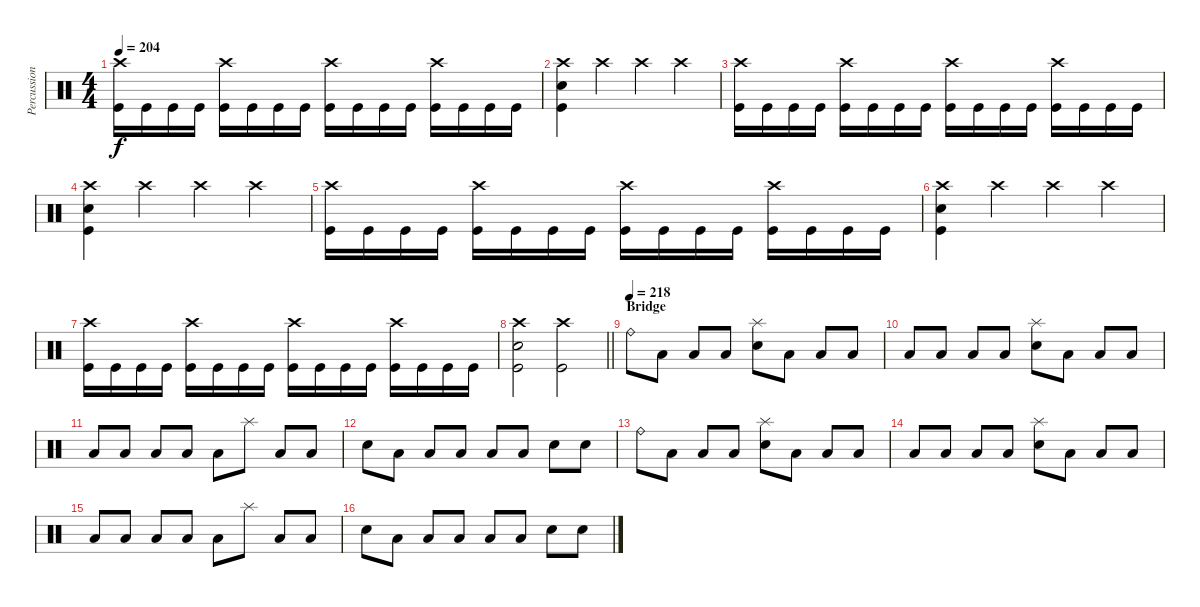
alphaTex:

\track ("Percussion" "Percussion") {instrument percussion}
\staff {score}
\articulation defaults
\ts (4 4)
\tempo 204
\clef neutral
\ks c
("Crash high (hit)" "Kick (hit)").16{dy f} "Kick (hit)".16 "Kick (hit)".16 "Kick (hit)".16 ("Crash high (hit)" "Kick (hit)").16 "Kick (hit)".16 "Kick (hit)".16 "Kick (hit)".16 ("Crash high (hit)" "Kick (hit)").16 "Kick (hit)".16 "Kick (hit)".16 "Kick (hit)".16 ("Crash high (hit)" "Kick (hit)").16 "Kick (hit)".16 "Kick (hit)".16 "Kick (hit)".16 |
("Crash high (hit)" "Electric Snare (hit)" "Kick (hit)").4 "Crash high (hit)".4 "Crash high (hit)".4 "Crash high (hit)".4 |
("Crash high (hit)" "Kick (hit)").16 "Kick (hit)".16 "Kick (hit)".16 "Kick (hit)".16 ("Crash high (hit)" "Kick (hit)").16 "Kick (hit)".16 "Kick (hit)".16 "Kick (hit)".16 ("Crash high (hit)" "Kick (hit)").16 "Kick (hit)".16 "Kick (hit)".16 "Kick (hit)".16 ("Crash high (hit)" "Kick (hit)").16 "Kick (hit)".16 "Kick (hit)".16 "Kick (hit)".16 |
("Crash high (hit)" "Electric Snare (hit)" "Kick (hit)").4 "Crash high (hit)".4 "Crash high (hit)".4 "Crash high (hit)".4 |
("Crash high (hit)" "Kick (hit)").16 "Kick (hit)".16 "Kick (hit)".16 "Kick (hit)".16 ("Crash high (hit)" "Kick (hit)").16 "Kick (hit)".16 "Kick (hit)".16 "Kick (hit)".16 ("Crash high (hit)" "Kick (hit)").16 "Kick (hit)".16 "Kick (hit)".16 "Kick (hit)".16 ("Crash high (hit)" "Kick (hit)").16 "Kick (hit)".16 "Kick (hit)".16 "Kick (hit)".16 |
("Crash high (hit)" "Electric Snare (hit)" "Kick (hit)").4 "Crash high (hit)".4 "Crash high (hit)".4 "Crash high (hit)".4 |
("Crash high (hit)" "Kick (hit)").16 "Kick (hit)".16 "Kick (hit)".16 "Kick (hit)".16 ("Crash high (hit)" "Kick (hit)").16 "Kick (hit)".16 "Kick (hit)".16 "Kick (hit)".16 ("Crash high (hit)" "Kick (hit)").16 "Kick (hit)".16 "Kick (hit)".16 "Kick (hit)".16 ("Crash high (hit)" "Kick (hit)").16 "Kick (hit)".16 "Kick (hit)".16 "Kick (hit)".16 |
\barLineRight lightlight
("Crash high (hit)" "Electric Snare (hit)" "Kick (hit)").2 ("Crash high (hit)" "Kick (hit)").2 |
\section ("" "Bridge")
\tempo (218)
"Ride (bell)".8 "Low Floor Tom (hit)".8 "Low Tom (hit)".8 "Low Tom (hit)".8 ("Splash (hit)" "Electric Snare (hit)").8 "Low Floor Tom (hit)".8 "Low Tom (hit)".8 "Low Floor Tom (hit)".8 |
"Low Tom (hit)".8 "Low Floor Tom (hit)".8 "Low Tom (hit)".8 "Low Tom (hit)".8 ("Splash (hit)" "Electric Snare (hit)").8 "Low Floor Tom (hit)".8 "Low Tom (hit)".8 "Low Floor Tom (hit)".8 |
"Low Tom (hit)".8 "Low Floor Tom (hit)".8 "Low Tom (hit)".8 "Low Tom (hit)".8 "Low Tom (hit)".8 "Splash (hit)".8 "Low Tom (hit)".8 "Low Floor Tom (hit)".8 |
"Electric Snare (hit)".8 "Low Floor Tom (hit)".8 "Low Tom (hit)".8 "Low Tom (hit)".8 "Low Tom (hit)".8 "Low Floor Tom (hit)".8 "Electric Snare (hit)".8 "Electric Snare (hit)".8 |
"Ride (bell)".8 "Low Floor Tom (hit)".8 "Low Tom (hit)".8 "Low Tom (hit)".8 ("Splash (hit)" "Electric Snare (hit)").8 "Low Floor Tom (hit)".8 "Low Tom (hit)".8 "Low Floor Tom (hit)".8 |
"Low Tom (hit)".8 "Low Floor Tom (hit)".8 "Low Tom (hit)".8 "Low Tom (hit)".8 ("Splash (hit)" "Electric Snare (hit)").8 "Low Floor Tom (hit)".8 "Low Tom (hit)".8 "Low Floor Tom (hit)".8 |
"Low Tom (hit)".8 "Low Floor Tom (hit)".8 "Low Tom (hit)".8 "Low Tom (hit)".8 "Low Tom (hit)".8 "Splash (hit)".8 "Low Tom (hit)".8 "Low Floor Tom (hit)".8 |
"Electric Snare (hit)".8 "Low Floor Tom (hit)".8 "Low Tom (hit)".8 "Low Tom (hit)".8 "Low Tom (hit)".8 "Low Floor Tom (hit)".8 "Electric Snare (hit)".8 "Electric Snare (hit)".8
